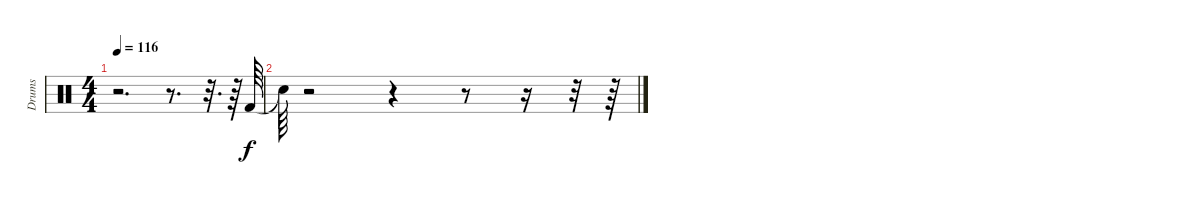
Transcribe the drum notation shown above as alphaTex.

\track ("Drums" "Drums") {instrument percussion}
\staff {score}
\articulation defaults
\ts (4 4)
\tempo 116
\clef neutral
\ks c
r.2{d dy f} r.8{d} r.32{d} r.64 "Kick (hit) 2".64 |
"Snare (hit)"{t}.64 r.2 r.4 r.8 r.16 r.32 r.64
